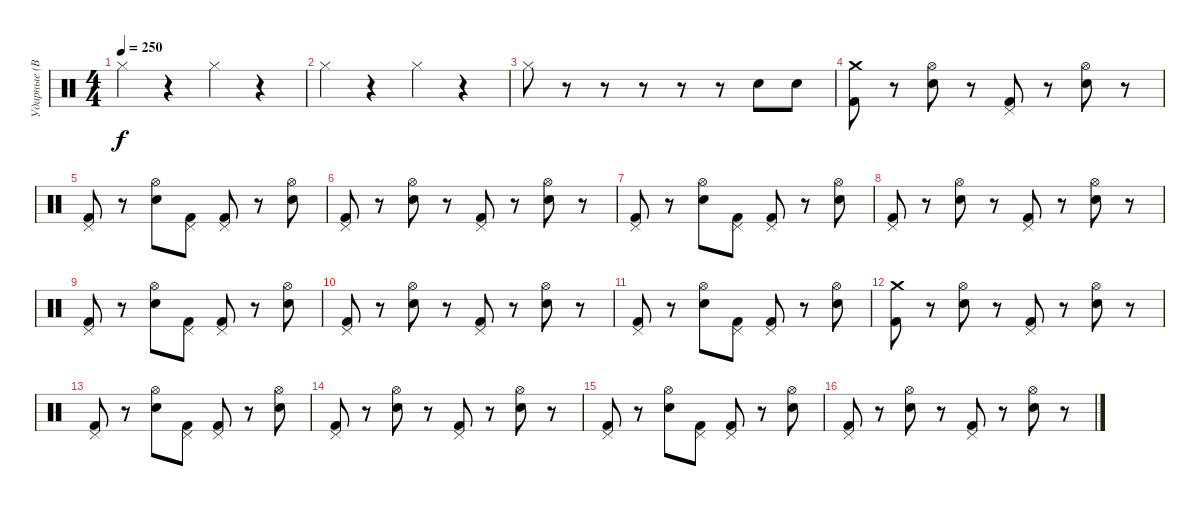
\track ("Ударные (Вася)" "Ударные (В") {instrument percussion}
\staff {score}
\articulation defaults
\ts (4 4)
\tempo 250
\clef neutral
\ks c "Hi-Hat (closed)".4{dy f}
r.4 "Hi-Hat (closed)".4 r.4 |
"Hi-Hat (closed)".4 r.4 "Hi-Hat (closed)".4 r.4 |
"Hi-Hat (closed)".8 r.8 r.8 r.8 r.8 r.8 "Electric Snare (hit)".8 "Snare (hit) 2".8 |
("Crash medium (hit)" "Kick (hit) 2").8 r.8 ("Hi-Hat (open)" "Electric Snare (hit)").8 r.8 ("Pedal Hi-Hat (hit)" "Kick (hit) 2").8 r.8 ("Hi-Hat (open)" "Electric Snare (hit)").8 r.8 |
("Pedal Hi-Hat (hit)" "Kick (hit) 2").8 r.8 ("Hi-Hat (open)" "Electric Snare (hit)").8 ("Pedal Hi-Hat (hit)" "Kick (hit) 2").8 ("Pedal Hi-Hat (hit)" "Kick (hit) 2").8 r.8 ("Hi-Hat (open)" "Electric Snare (hit)").8 |
("Pedal Hi-Hat (hit)" "Kick (hit) 2").8 r.8 ("Hi-Hat (open)" "Electric Snare (hit)").8 r.8 ("Pedal Hi-Hat (hit)" "Kick (hit) 2").8 r.8 ("Hi-Hat (open)" "Electric Snare (hit)").8 r.8 |
("Pedal Hi-Hat (hit)" "Kick (hit) 2").8 r.8 ("Hi-Hat (open)" "Electric Snare (hit)").8 ("Pedal Hi-Hat (hit)" "Kick (hit) 2").8 ("Pedal Hi-Hat (hit)" "Kick (hit) 2").8 r.8 ("Hi-Hat (open)" "Electric Snare (hit)").8 |
("Pedal Hi-Hat (hit)" "Kick (hit) 2").8 r.8 ("Hi-Hat (open)" "Electric Snare (hit)").8 r.8 ("Pedal Hi-Hat (hit)" "Kick (hit) 2").8 r.8 ("Hi-Hat (open)" "Electric Snare (hit)").8 r.8 |
("Pedal Hi-Hat (hit)" "Kick (hit) 2").8 r.8 ("Hi-Hat (open)" "Electric Snare (hit)").8 ("Pedal Hi-Hat (hit)" "Kick (hit) 2").8 ("Pedal Hi-Hat (hit)" "Kick (hit) 2").8 r.8 ("Hi-Hat (open)" "Electric Snare (hit)").8 |
("Pedal Hi-Hat (hit)" "Kick (hit) 2").8 r.8 ("Hi-Hat (open)" "Electric Snare (hit)").8 r.8 ("Pedal Hi-Hat (hit)" "Kick (hit) 2").8 r.8 ("Hi-Hat (open)" "Electric Snare (hit)").8 r.8 |
("Pedal Hi-Hat (hit)" "Kick (hit) 2").8 r.8 ("Hi-Hat (open)" "Electric Snare (hit)").8 ("Pedal Hi-Hat (hit)" "Kick (hit) 2").8 ("Pedal Hi-Hat (hit)" "Kick (hit) 2").8 r.8 ("Hi-Hat (open)" "Electric Snare (hit)").8 |
("Crash medium (hit)" "Kick (hit) 2").8 r.8 ("Hi-Hat (open)" "Electric Snare (hit)").8 r.8 ("Pedal Hi-Hat (hit)" "Kick (hit) 2").8 r.8 ("Hi-Hat (open)" "Electric Snare (hit)").8 r.8 |
("Pedal Hi-Hat (hit)" "Kick (hit) 2").8 r.8 ("Hi-Hat (open)" "Electric Snare (hit)").8 ("Pedal Hi-Hat (hit)" "Kick (hit) 2").8 ("Pedal Hi-Hat (hit)" "Kick (hit) 2").8 r.8 ("Hi-Hat (open)" "Electric Snare (hit)").8 |
("Pedal Hi-Hat (hit)" "Kick (hit) 2").8 r.8 ("Hi-Hat (open)" "Electric Snare (hit)").8 r.8 ("Pedal Hi-Hat (hit)" "Kick (hit) 2").8 r.8 ("Hi-Hat (open)" "Electric Snare (hit)").8 r.8 |
("Pedal Hi-Hat (hit)" "Kick (hit) 2").8 r.8 ("Hi-Hat (open)" "Electric Snare (hit)").8 ("Pedal Hi-Hat (hit)" "Kick (hit) 2").8 ("Pedal Hi-Hat (hit)" "Kick (hit) 2").8 r.8 ("Hi-Hat (open)" "Electric Snare (hit)").8 |
("Pedal Hi-Hat (hit)" "Kick (hit) 2").8 r.8 ("Hi-Hat (open)" "Electric Snare (hit)").8 r.8 ("Pedal Hi-Hat (hit)" "Kick (hit) 2").8 r.8 ("Hi-Hat (open)" "Electric Snare (hit)").8 r.8
